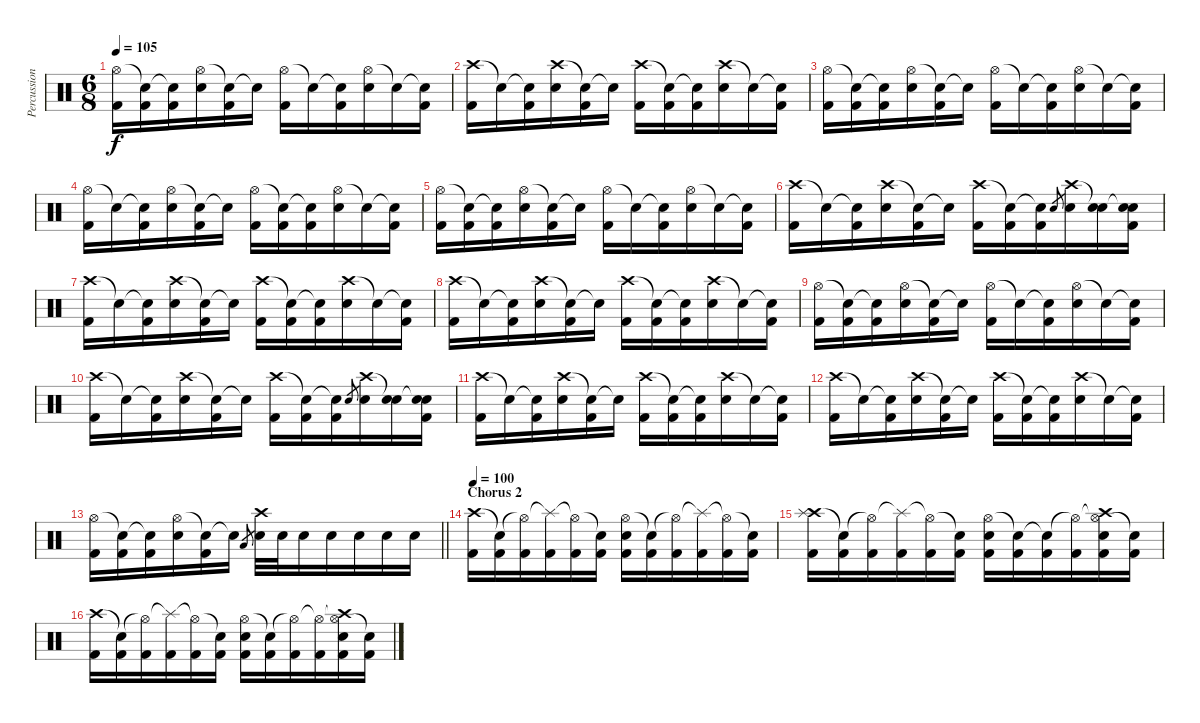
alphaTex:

\track ("Percussion" "Percussion") {instrument percussion}
\staff {score}
\articulation defaults
\ts (6 8)
\tempo 105
\clef neutral
\ks c
("Hi-Hat (open)" "Kick (hit) 2").16{dy f} ("Snare (hit)"{t} "Kick (hit) 2").16 ("Snare (hit)"{t} "Kick (hit) 2").16 ("Hi-Hat (open)" "Electric Snare (hit)").16 ("Snare (hit)"{t} "Kick (hit) 2").16 "Snare (hit)"{t}.16 ("Hi-Hat (open)" "Kick (hit) 2").16 "Snare (hit)"{t}.16 ("Snare (hit)"{t} "Kick (hit) 2").16 ("Hi-Hat (open)" "Electric Snare (hit)").16 "Snare (hit)"{t}.16 ("Snare (hit)"{t} "Kick (hit) 2").16 |
("Crash high (hit)" "Kick (hit) 2").16 "Snare (hit)"{t}.16 ("Snare (hit)"{t} "Kick (hit) 2").16 ("Crash high (hit)" "Electric Snare (hit)").16 ("Snare (hit)"{t} "Kick (hit) 2").16 "Snare (hit)"{t}.16 ("Crash high (hit)" "Kick (hit) 2").16 ("Snare (hit)"{t} "Kick (hit) 2").16 ("Snare (hit)"{t} "Kick (hit) 2").16 ("Crash high (hit)" "Electric Snare (hit)").16 "Snare (hit)"{t}.16 ("Snare (hit)"{t} "Kick (hit) 2").16 |
("Hi-Hat (open)" "Kick (hit) 2").16 ("Snare (hit)"{t} "Kick (hit) 2").16 ("Snare (hit)"{t} "Kick (hit) 2").16 ("Hi-Hat (open)" "Electric Snare (hit)").16 ("Snare (hit)"{t} "Kick (hit) 2").16 "Snare (hit)"{t}.16 ("Hi-Hat (open)" "Kick (hit) 2").16 "Snare (hit)"{t}.16 ("Snare (hit)"{t} "Kick (hit) 2").16 ("Hi-Hat (open)" "Electric Snare (hit)").16 "Snare (hit)"{t}.16 ("Snare (hit)"{t} "Kick (hit) 2").16 |
("Hi-Hat (open)" "Kick (hit) 2").16 "Snare (hit)"{t}.16 ("Snare (hit)"{t} "Kick (hit) 2").16 ("Hi-Hat (open)" "Electric Snare (hit)").16 ("Snare (hit)"{t} "Kick (hit) 2").16 "Snare (hit)"{t}.16 ("Hi-Hat (open)" "Kick (hit) 2").16 ("Snare (hit)"{t} "Kick (hit) 2").16 ("Snare (hit)"{t} "Kick (hit) 2").16 ("Hi-Hat (open)" "Electric Snare (hit)").16 "Snare (hit)"{t}.16 ("Snare (hit)"{t} "Kick (hit) 2").16 |
("Hi-Hat (open)" "Kick (hit) 2").16 ("Snare (hit)"{t} "Kick (hit) 2").16 ("Snare (hit)"{t} "Kick (hit) 2").16 ("Hi-Hat (open)" "Electric Snare (hit)").16 ("Snare (hit)"{t} "Kick (hit) 2").16 "Snare (hit)"{t}.16 ("Hi-Hat (open)" "Kick (hit) 2").16 "Snare (hit)"{t}.16 ("Snare (hit)"{t} "Kick (hit) 2").16 ("Hi-Hat (open)" "Electric Snare (hit)").16 "Snare (hit)"{t}.16 ("Snare (hit)"{t} "Kick (hit) 2").16 |
("Crash high (hit)" "Kick (hit) 2").16 "Snare (hit)"{t}.16 ("Snare (hit)"{t} "Kick (hit) 2").16 ("Crash high (hit)" "Electric Snare (hit)").16 ("Snare (hit)"{t} "Kick (hit) 2").16 "Snare (hit)"{t}.16 ("Crash high (hit)" "Kick (hit) 2").16 ("Snare (hit)"{t} "Kick (hit) 2").16 ("Snare (hit)"{t} "Kick (hit) 2").16 "Electric Snare (hit)".8{gr} ("Crash high (hit)" "Electric Snare (hit)").16 ("Snare (hit)"{t} "Electric Snare (hit)").16 ("Snare (hit)"{t} "Electric Snare (hit)" "Kick (hit) 2").16 |
("Crash high (hit)" "Kick (hit) 2").16 "Snare (hit)"{t}.16 ("Snare (hit)"{t} "Kick (hit) 2").16 ("Crash high (hit)" "Electric Snare (hit)").16 ("Snare (hit)"{t} "Kick (hit) 2").16 "Snare (hit)"{t}.16 ("Crash high (hit)" "Kick (hit) 2").16 ("Snare (hit)"{t} "Kick (hit) 2").16 ("Snare (hit)"{t} "Kick (hit) 2").16 ("Crash high (hit)" "Electric Snare (hit)").16 "Snare (hit)"{t}.16 ("Snare (hit)"{t} "Kick (hit) 2").16 |
("Crash high (hit)" "Kick (hit) 2").16 "Snare (hit)"{t}.16 ("Snare (hit)"{t} "Kick (hit) 2").16 ("Crash high (hit)" "Electric Snare (hit)").16 ("Snare (hit)"{t} "Kick (hit) 2").16 "Snare (hit)"{t}.16 ("Crash high (hit)" "Kick (hit) 2").16 ("Snare (hit)"{t} "Kick (hit) 2").16 ("Snare (hit)"{t} "Kick (hit) 2").16 ("Crash high (hit)" "Electric Snare (hit)").16 "Snare (hit)"{t}.16 ("Snare (hit)"{t} "Kick (hit) 2").16 |
("Hi-Hat (open)" "Kick (hit) 2").16 ("Snare (hit)"{t} "Kick (hit) 2").16 ("Snare (hit)"{t} "Kick (hit) 2").16 ("Hi-Hat (open)" "Electric Snare (hit)").16 ("Snare (hit)"{t} "Kick (hit) 2").16 "Snare (hit)"{t}.16 ("Hi-Hat (open)" "Kick (hit) 2").16 "Snare (hit)"{t}.16 ("Snare (hit)"{t} "Kick (hit) 2").16 ("Hi-Hat (open)" "Electric Snare (hit)").16 "Snare (hit)"{t}.16 ("Snare (hit)"{t} "Kick (hit) 2").16 |
("Crash high (hit)" "Kick (hit) 2").16 "Snare (hit)"{t}.16 ("Snare (hit)"{t} "Kick (hit) 2").16 ("Crash high (hit)" "Electric Snare (hit)").16 ("Snare (hit)"{t} "Kick (hit) 2").16 "Snare (hit)"{t}.16 ("Crash high (hit)" "Kick (hit) 2").16 ("Snare (hit)"{t} "Kick (hit) 2").16 ("Snare (hit)"{t} "Kick (hit) 2").16 "Electric Snare (hit)".8{gr} ("Crash high (hit)" "Electric Snare (hit)").16 ("Snare (hit)"{t} "Electric Snare (hit)").16 ("Snare (hit)"{t} "Electric Snare (hit)" "Kick (hit) 2").16 |
("Crash high (hit)" "Kick (hit) 2").16 "Snare (hit)"{t}.16 ("Snare (hit)"{t} "Kick (hit) 2").16 ("Crash high (hit)" "Electric Snare (hit)").16 ("Snare (hit)"{t} "Kick (hit) 2").16 "Snare (hit)"{t}.16 ("Crash high (hit)" "Kick (hit) 2").16 ("Snare (hit)"{t} "Kick (hit) 2").16 ("Snare (hit)"{t} "Kick (hit) 2").16 ("Crash high (hit)" "Electric Snare (hit)").16 "Snare (hit)"{t}.16 ("Snare (hit)"{t} "Kick (hit) 2").16 |
("Crash high (hit)" "Kick (hit) 2").16 "Snare (hit)"{t}.16 ("Snare (hit)"{t} "Kick (hit) 2").16 ("Crash high (hit)" "Electric Snare (hit)").16 ("Snare (hit)"{t} "Kick (hit) 2").16 "Snare (hit)"{t}.16 ("Crash high (hit)" "Kick (hit) 2").16 ("Snare (hit)"{t} "Kick (hit) 2").16 ("Snare (hit)"{t} "Kick (hit) 2").16 ("Crash high (hit)" "Electric Snare (hit)").16 "Snare (hit)"{t}.16 ("Snare (hit)"{t} "Kick (hit) 2").16 |
\barLineRight lightlight
("Hi-Hat (open)" "Kick (hit) 2").16 ("Snare (hit)"{t} "Kick (hit) 2").16 ("Snare (hit)"{t} "Kick (hit) 2").16 ("Hi-Hat (open)" "Electric Snare (hit)").16 ("Snare (hit)"{t} "Kick (hit) 2").16 "Snare (hit)"{t}.16 "Low Tom (hit)".8{gr} ("Crash high (hit)" "Electric Snare (hit)").32 "Electric Snare (hit)".32 "Electric Snare (hit)".16 "Electric Snare (hit)".16 "Electric Snare (hit)".16 "Electric Snare (hit)".16 "Electric Snare (hit)".16 |
\section ("" "Chorus 2")
\tempo 100
("Crash high (hit)" "Kick (hit) 2").16 ("Snare (hit)"{t} "Kick (hit) 2").16 ("Hi-Hat (open)"{t} "Kick (hit) 2").16 ("Splash (hit)"{t} "Kick (hit) 2").16 ("Hi-Hat (open)"{t} "Kick (hit) 2").16 ("Snare (hit)"{t} "Kick (hit) 2").16 ("Hi-Hat (open)" "Electric Snare (hit)" "Kick (hit) 2").16 ("Snare (hit)"{t} "Kick (hit) 2").16 ("Hi-Hat (open)"{t} "Kick (hit) 2").16 ("Splash (hit)"{t} "Kick (hit) 2").16 ("Hi-Hat (open)"{t} "Kick (hit) 2").16 ("Snare (hit)"{t} "Kick (hit) 2").16 |
("Crash high (hit)" "Splash (hit)" "Kick (hit) 2").16 ("Snare (hit)"{t} "Kick (hit) 2").16 ("Hi-Hat (open)"{t} "Kick (hit) 2").16 ("Splash (hit)"{t} "Kick (hit) 2").16 ("Hi-Hat (open)"{t} "Kick (hit) 2").16 ("Snare (hit)"{t} "Kick (hit) 2").16 ("Hi-Hat (open)" "Electric Snare (hit)" "Kick (hit) 2").16 ("Snare (hit)"{t} "Kick (hit) 2").16 ("Snare (hit)"{t} "Kick (hit) 2").16 ("Hi-Hat (open)"{t} "Kick (hit) 2").16 ("Hi-Hat (open)"{t} "Crash high (hit)" "Electric Snare (hit)" "Kick (hit) 2").16 ("Snare (hit)"{t} "Kick (hit) 2").16 |
("Crash high (hit)" "Kick (hit) 2").16 ("Snare (hit)"{t} "Kick (hit) 2").16 ("Hi-Hat (open)"{t} "Kick (hit) 2").16 ("Splash (hit)"{t} "Kick (hit) 2").16 ("Hi-Hat (open)"{t} "Kick (hit) 2").16 ("Snare (hit)"{t} "Kick (hit) 2").16 ("Hi-Hat (open)" "Electric Snare (hit)" "Kick (hit) 2").16 ("Snare (hit)"{t} "Kick (hit) 2").16 ("Hi-Hat (open)"{t} "Kick (hit) 2").16 ("Hi-Hat (open)"{t} "Kick (hit) 2").16 ("Hi-Hat (open)"{t} "Crash high (hit)" "Electric Snare (hit)" "Kick (hit) 2").16 ("Snare (hit)"{t} "Kick (hit) 2").16
